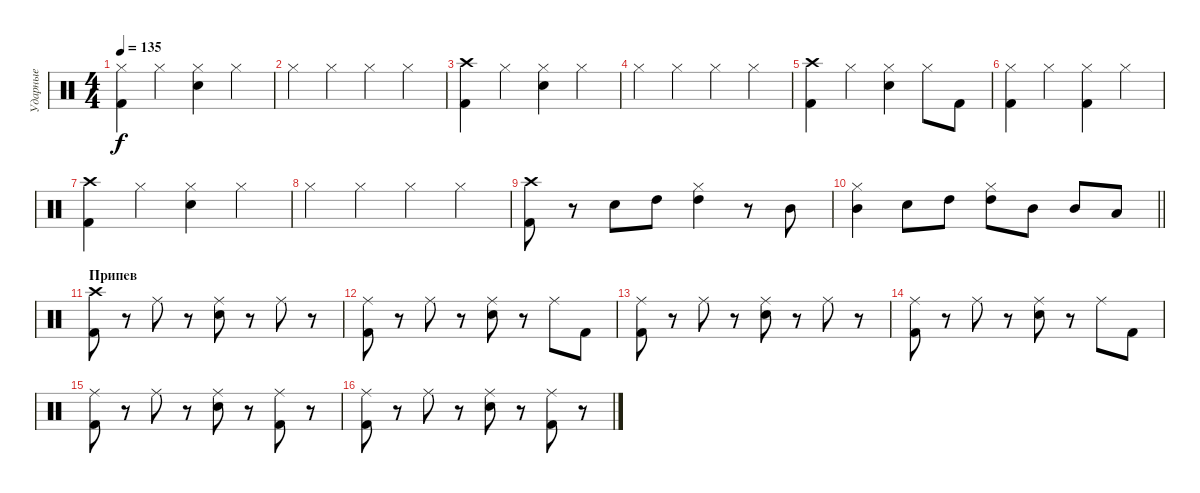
\track ("Ударные" "Ударные") {instrument percussion}
\staff {score}
\articulation defaults
\ts (4 4)
\tempo 135
\clef neutral
\ks c
("Hi-Hat (closed)" "Kick (hit) 2").4{dy f} "Hi-Hat (closed)".4 ("Hi-Hat (closed)" "Electric Snare (hit)").4 "Hi-Hat (closed)".4 |
"Hi-Hat (closed)".4 "Hi-Hat (closed)".4 "Hi-Hat (closed)".4 "Hi-Hat (closed)".4 |
("Kick (hit) 2" "Crash high (hit)").4 "Hi-Hat (closed)".4 ("Hi-Hat (closed)" "Electric Snare (hit)").4 "Hi-Hat (closed)".4 |
"Hi-Hat (closed)".4 "Hi-Hat (closed)".4 "Hi-Hat (closed)".4 "Hi-Hat (closed)".4 |
("Kick (hit) 2" "Crash high (hit)").4 "Hi-Hat (closed)".4 ("Hi-Hat (closed)" "Electric Snare (hit)").4 "Hi-Hat (closed)".8 "Kick (hit) 2".8 |
("Hi-Hat (closed)" "Kick (hit) 2").4 "Hi-Hat (closed)".4 ("Hi-Hat (closed)" "Kick (hit) 2").4 "Hi-Hat (closed)".4 |
("Kick (hit) 2" "Crash high (hit)").4 "Hi-Hat (closed)".4 ("Hi-Hat (closed)" "Electric Snare (hit)").4 "Hi-Hat (closed)".4 |
"Hi-Hat (closed)".4 "Hi-Hat (closed)".4 "Hi-Hat (closed)".4 "Hi-Hat (closed)".4 |
("Kick (hit) 2" "Crash high (hit)").8 r.8 "Electric Snare (hit)".8 "High Tom (hit)".8 ("High Tom (hit)" "Hi-Hat (closed)").4 r.8 "Mid Tom (hit)".8 |
\barLineRight lightlight
("Mid Tom (hit)" "Hi-Hat (closed)").4 "Electric Snare (hit)".8 "High Tom (hit)".8 ("High Tom (hit)" "Hi-Hat (closed)").8 "Mid Tom (hit)".8 "Mid Tom (hit)".8 "Low Tom (hit)".8 |
\section ("" "Припев")
("Kick (hit) 2" "Crash high (hit)").8 r.8 "Ride (middle)".8 r.8 ("Ride (middle)" "Electric Snare (hit)").8 r.8 "Ride (middle)".8 r.8 |
("Ride (middle)" "Kick (hit) 2").8 r.8 "Ride (middle)".8 r.8 ("Ride (middle)" "Electric Snare (hit)").8 r.8 "Ride (middle)".8 "Kick (hit) 2".8 |
("Ride (middle)" "Kick (hit) 2").8 r.8 "Ride (middle)".8 r.8 ("Ride (middle)" "Electric Snare (hit)").8 r.8 "Ride (middle)".8 r.8 |
("Ride (middle)" "Kick (hit) 2").8 r.8 "Ride (middle)".8 r.8 ("Ride (middle)" "Electric Snare (hit)").8 r.8 "Ride (middle)".8 "Kick (hit) 2".8 |
("Ride (middle)" "Kick (hit) 2").8 r.8 "Ride (middle)".8 r.8 ("Ride (middle)" "Electric Snare (hit)").8 r.8 ("Ride (middle)" "Kick (hit) 2").8 r.8 |
("Ride (middle)" "Kick (hit) 2").8 r.8 "Ride (middle)".8 r.8 ("Ride (middle)" "Electric Snare (hit)").8 r.8 ("Ride (middle)" "Kick (hit) 2").8 r.8
